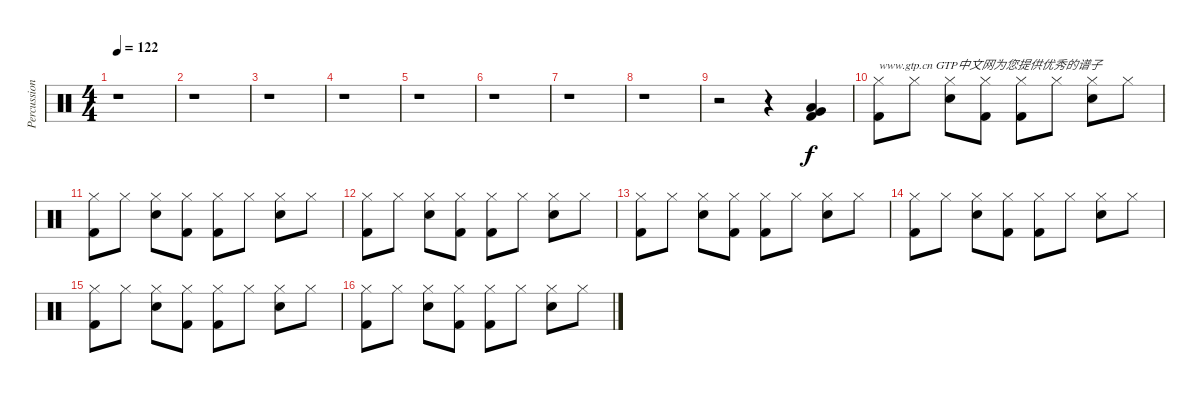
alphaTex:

\track ("Percussion" "Percussion") {instrument percussion}
\staff {score}
\articulation defaults
\ts (4 4)
\tempo 122
\clef neutral
\ks c
r.1{dy f} |
r.1 |
r.1 |
r.1 |
r.1 |
r.1 |
r.1 |
r.1 |
r.2 r.4 ("Very Low Tom (hit)" "Low Floor Tom (hit)" "Kick (hit) 2").4 |
("Hi-Hat (closed)" "Kick (hit) 2").8{txt "www.gtp.cn GTP中文网为您提供优秀的谱子"} "Hi-Hat (closed)".8 ("Hi-Hat (closed)" "Electric Snare (hit)").8 ("Hi-Hat (closed)" "Kick (hit) 2").8 ("Hi-Hat (closed)" "Kick (hit) 2").8 "Hi-Hat (closed)".8 ("Hi-Hat (closed)" "Electric Snare (hit)").8 "Hi-Hat (closed)".8 |
("Hi-Hat (closed)" "Kick (hit) 2").8 "Hi-Hat (closed)".8 ("Hi-Hat (closed)" "Electric Snare (hit)").8 ("Hi-Hat (closed)" "Kick (hit) 2").8 ("Hi-Hat (closed)" "Kick (hit) 2").8 "Hi-Hat (closed)".8 ("Hi-Hat (closed)" "Electric Snare (hit)").8 "Hi-Hat (closed)".8 |
("Hi-Hat (closed)" "Kick (hit) 2").8 "Hi-Hat (closed)".8 ("Hi-Hat (closed)" "Electric Snare (hit)").8 ("Hi-Hat (closed)" "Kick (hit) 2").8 ("Hi-Hat (closed)" "Kick (hit) 2").8 "Hi-Hat (closed)".8 ("Hi-Hat (closed)" "Electric Snare (hit)").8 "Hi-Hat (closed)".8 |
("Hi-Hat (closed)" "Kick (hit) 2").8 "Hi-Hat (closed)".8 ("Hi-Hat (closed)" "Electric Snare (hit)").8 ("Hi-Hat (closed)" "Kick (hit) 2").8 ("Hi-Hat (closed)" "Kick (hit) 2").8 "Hi-Hat (closed)".8 ("Hi-Hat (closed)" "Electric Snare (hit)").8 "Hi-Hat (closed)".8 |
("Hi-Hat (closed)" "Kick (hit) 2").8 "Hi-Hat (closed)".8 ("Hi-Hat (closed)" "Electric Snare (hit)").8 ("Hi-Hat (closed)" "Kick (hit) 2").8 ("Hi-Hat (closed)" "Kick (hit) 2").8 "Hi-Hat (closed)".8 ("Hi-Hat (closed)" "Electric Snare (hit)").8 "Hi-Hat (closed)".8 |
("Hi-Hat (closed)" "Kick (hit) 2").8 "Hi-Hat (closed)".8 ("Hi-Hat (closed)" "Electric Snare (hit)").8 ("Hi-Hat (closed)" "Kick (hit) 2").8 ("Hi-Hat (closed)" "Kick (hit) 2").8 "Hi-Hat (closed)".8 ("Hi-Hat (closed)" "Electric Snare (hit)").8 "Hi-Hat (closed)".8 |
("Hi-Hat (closed)" "Kick (hit) 2").8 "Hi-Hat (closed)".8 ("Hi-Hat (closed)" "Electric Snare (hit)").8 ("Hi-Hat (closed)" "Kick (hit) 2").8 ("Hi-Hat (closed)" "Kick (hit) 2").8 "Hi-Hat (closed)".8 ("Hi-Hat (closed)" "Electric Snare (hit)").8 "Hi-Hat (closed)".8
